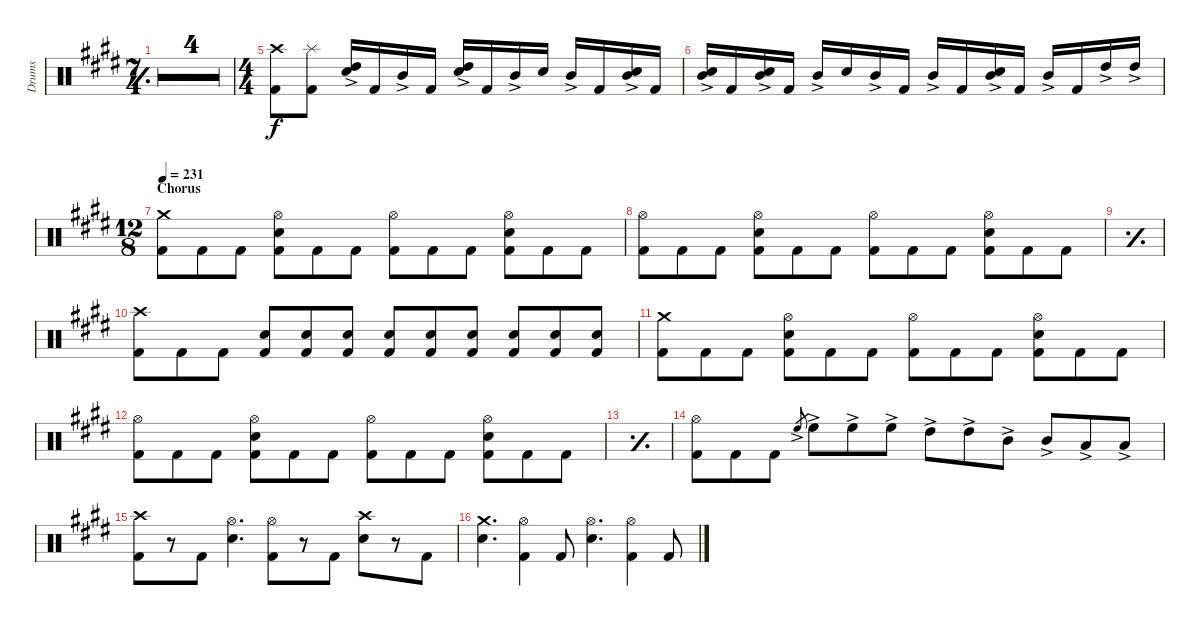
\defaultSystemsLayout 4
\bracketExtendMode groupsimilarinstruments
\otherSystemsTrackNameOrientation horizontal
\track ("Drumkit" "Drums") {multiBarRest instrument percussion}
\staff {score}
\articulation defaults
\ts (7 4)
\tempo 128
\clef neutral
\simile simple
\ks e
|
|
|
|
\ts (4 4)
("Crash high (hit)"{acc forcenatural} "Kick (hit) 2"{acc forcenatural}).8 ("Kick (hit) 2"{acc forcenatural} "Splash (hit)"{acc forcenatural}).8 ("Snare (hit) 2"{acc forcenatural} "High Tom (hit)"{ac acc forcenatural}).16 "Kick (hit) 2"{acc forcenatural}.16 "Mid Tom (hit)"{ac acc forcenatural}.16 "Kick (hit) 2"{acc forcenatural}.16 ("Snare (hit) 2"{acc forcenatural} "High Tom (hit)"{ac acc forcenatural}).16 "Kick (hit) 2"{acc forcenatural}.16 "Mid Tom (hit)"{ac acc forcenatural}.16 "Snare (hit) 2"{acc forcenatural}.16 "Mid Tom (hit)"{ac acc forcenatural}.16 "Kick (hit) 2"{acc forcenatural}.16 ("Snare (hit) 2"{acc forcenatural} "Mid Tom (hit)"{ac acc forcenatural}).16 "Kick (hit) 2"{acc forcenatural}.16 |
("Snare (hit) 2"{acc forcenatural} "Mid Tom (hit)"{ac acc forcenatural}).16 "Kick (hit) 2"{acc forcenatural}.16 ("Snare (hit) 2"{acc forcenatural} "Mid Tom (hit)"{ac acc forcenatural}).16 "Kick (hit) 2"{acc forcenatural}.16 "Mid Tom (hit)"{ac acc forcenatural}.16 "Snare (hit) 2"{acc forcenatural}.16 "Mid Tom (hit)"{ac acc forcenatural}.16 "Kick (hit) 2"{acc forcenatural}.16 "Mid Tom (hit)"{ac acc forcenatural}.16 "Kick (hit) 2"{acc forcenatural}.16 ("Snare (hit) 2"{acc forcenatural} "Mid Tom (hit)"{ac acc forcenatural}).16 "Kick (hit) 2"{acc forcenatural}.16 "Mid Tom (hit)"{ac acc forcenatural}.16 "Kick (hit) 2"{acc forcenatural}.16 "High Tom (hit)"{ac acc forcenatural}.16 "High Tom (hit)"{ac acc forcenatural}.16 |
\ts (12 8)
\section ("" "Chorus")
\tempo 231
("Kick (hit) 2"{acc forcenatural} "Crash medium (hit)"{acc forcenatural}).8 "Kick (hit) 2"{acc forcenatural}.8 "Kick (hit) 2"{acc forcenatural}.8 ("Snare (hit) 2"{acc forcenatural} "Kick (hit) 2"{acc forcenatural} "Hi-Hat (open)"{acc forcenatural}).8 "Kick (hit) 2"{acc forcenatural}.8 "Kick (hit) 2"{acc forcenatural}.8 ("Hi-Hat (open)"{acc forcenatural} "Kick (hit) 2"{acc forcenatural}).8 "Kick (hit) 2"{acc forcenatural}.8 "Kick (hit) 2"{acc forcenatural}.8 ("Snare (hit) 2"{acc forcenatural} "Kick (hit) 2"{acc forcenatural} "Hi-Hat (open)"{acc forcenatural}).8 "Kick (hit) 2"{acc forcenatural}.8 "Kick (hit) 2"{acc forcenatural}.8 |
("Hi-Hat (open)"{acc forcenatural} "Kick (hit) 2"{acc forcenatural}).8 "Kick (hit) 2"{acc forcenatural}.8 "Kick (hit) 2"{acc forcenatural}.8 ("Snare (hit) 2"{acc forcenatural} "Kick (hit) 2"{acc forcenatural} "Hi-Hat (open)"{acc forcenatural}).8 "Kick (hit) 2"{acc forcenatural}.8 "Kick (hit) 2"{acc forcenatural}.8 ("Hi-Hat (open)"{acc forcenatural} "Kick (hit) 2"{acc forcenatural}).8 "Kick (hit) 2"{acc forcenatural}.8 "Kick (hit) 2"{acc forcenatural}.8 ("Snare (hit) 2"{acc forcenatural} "Kick (hit) 2"{acc forcenatural} "Hi-Hat (open)"{acc forcenatural}).8 "Kick (hit) 2"{acc forcenatural}.8 "Kick (hit) 2"{acc forcenatural}.8 |
\simile simple
|
\simile none
("Crash high (hit)"{acc forcenatural} "Kick (hit) 2"{acc forcenatural}).8 "Kick (hit) 2"{acc forcenatural}.8 "Kick (hit) 2"{acc forcenatural}.8 ("Snare (hit) 2"{acc forcenatural} "Kick (hit) 2"{acc forcenatural}).8 ("Snare (hit) 2"{acc forcenatural} "Kick (hit) 2"{acc forcenatural}).8 ("Snare (hit) 2"{acc forcenatural} "Kick (hit) 2"{acc forcenatural}).8 ("Snare (hit) 2"{acc forcenatural} "Kick (hit) 2"{acc forcenatural}).8 ("Snare (hit) 2"{acc forcenatural} "Kick (hit) 2"{acc forcenatural}).8 ("Snare (hit) 2"{acc forcenatural} "Kick (hit) 2"{acc forcenatural}).8 ("Snare (hit) 2"{acc forcenatural} "Kick (hit) 2"{acc forcenatural}).8 ("Snare (hit) 2"{acc forcenatural} "Kick (hit) 2"{acc forcenatural}).8 ("Snare (hit) 2"{acc forcenatural} "Kick (hit) 2"{acc forcenatural}).8 |
("Kick (hit) 2"{acc forcenatural} "Crash medium (hit)"{acc forcenatural}).8 "Kick (hit) 2"{acc forcenatural}.8 "Kick (hit) 2"{acc forcenatural}.8 ("Snare (hit) 2"{acc forcenatural} "Kick (hit) 2"{acc forcenatural} "Hi-Hat (open)"{acc forcenatural}).8 "Kick (hit) 2"{acc forcenatural}.8 "Kick (hit) 2"{acc forcenatural}.8 ("Hi-Hat (open)"{acc forcenatural} "Kick (hit) 2"{acc forcenatural}).8 "Kick (hit) 2"{acc forcenatural}.8 "Kick (hit) 2"{acc forcenatural}.8 ("Snare (hit) 2"{acc forcenatural} "Kick (hit) 2"{acc forcenatural} "Hi-Hat (open)"{acc forcenatural}).8 "Kick (hit) 2"{acc forcenatural}.8 "Kick (hit) 2"{acc forcenatural}.8 |
("Hi-Hat (open)"{acc forcenatural} "Kick (hit) 2"{acc forcenatural}).8 "Kick (hit) 2"{acc forcenatural}.8 "Kick (hit) 2"{acc forcenatural}.8 ("Snare (hit) 2"{acc forcenatural} "Kick (hit) 2"{acc forcenatural} "Hi-Hat (open)"{acc forcenatural}).8 "Kick (hit) 2"{acc forcenatural}.8 "Kick (hit) 2"{acc forcenatural}.8 ("Hi-Hat (open)"{acc forcenatural} "Kick (hit) 2"{acc forcenatural}).8 "Kick (hit) 2"{acc forcenatural}.8 "Kick (hit) 2"{acc forcenatural}.8 ("Snare (hit) 2"{acc forcenatural} "Kick (hit) 2"{acc forcenatural} "Hi-Hat (open)"{acc forcenatural}).8 "Kick (hit) 2"{acc forcenatural}.8 "Kick (hit) 2"{acc forcenatural}.8 |
\simile simple
|
\simile none
("Hi-Hat (open)"{acc forcenatural} "Kick (hit) 2"{acc forcenatural}).8 "Kick (hit) 2"{acc forcenatural}.8 "Kick (hit) 2"{acc forcenatural}.8 "High Floor Tom (hit)"{ac acc forcenatural}.8{gr} "High Floor Tom (hit)"{ac acc forcenatural}.8 "High Floor Tom (hit)"{ac acc forcenatural}.8 "High Floor Tom (hit)"{ac acc forcenatural}.8 "High Tom (hit)"{ac acc forcenatural}.8 "High Tom (hit)"{ac acc forcenatural}.8 "Mid Tom (hit)"{ac acc forcenatural}.8 "Mid Tom (hit)"{ac acc forcenatural}.8 "Low Tom (hit)"{ac acc forcenatural}.8 "Low Tom (hit)"{ac acc forcenatural}.8 |
("Kick (hit) 2"{acc forcenatural} "Crash high (hit)"{acc forcenatural}).8 r.8 "Kick (hit) 2"{acc forcenatural}.8 ("Snare (hit) 2"{acc forcenatural} "Hi-Hat (open)"{acc forcenatural}).4{d} ("Hi-Hat (open)"{acc forcenatural} "Kick (hit) 2"{acc forcenatural}).8 r.8 "Kick (hit) 2"{acc forcenatural}.8 ("Crash high (hit)"{acc forcenatural} "Snare (hit) 2"{acc forcenatural}).8 r.8 "Kick (hit) 2"{acc forcenatural}.8 |
("Crash medium (hit)"{acc forcenatural} "Snare (hit) 2"{acc forcenatural}).4{d} ("Hi-Hat (open)"{acc forcenatural} "Kick (hit) 2"{acc forcenatural}).4 "Kick (hit) 2"{acc forcenatural}.8 ("Hi-Hat (open)"{acc forcenatural} "Snare (hit) 2"{acc forcenatural}).4{d} ("Hi-Hat (open)"{acc forcenatural} "Kick (hit) 2"{acc forcenatural}).4 "Kick (hit) 2"{acc forcenatural}.8
